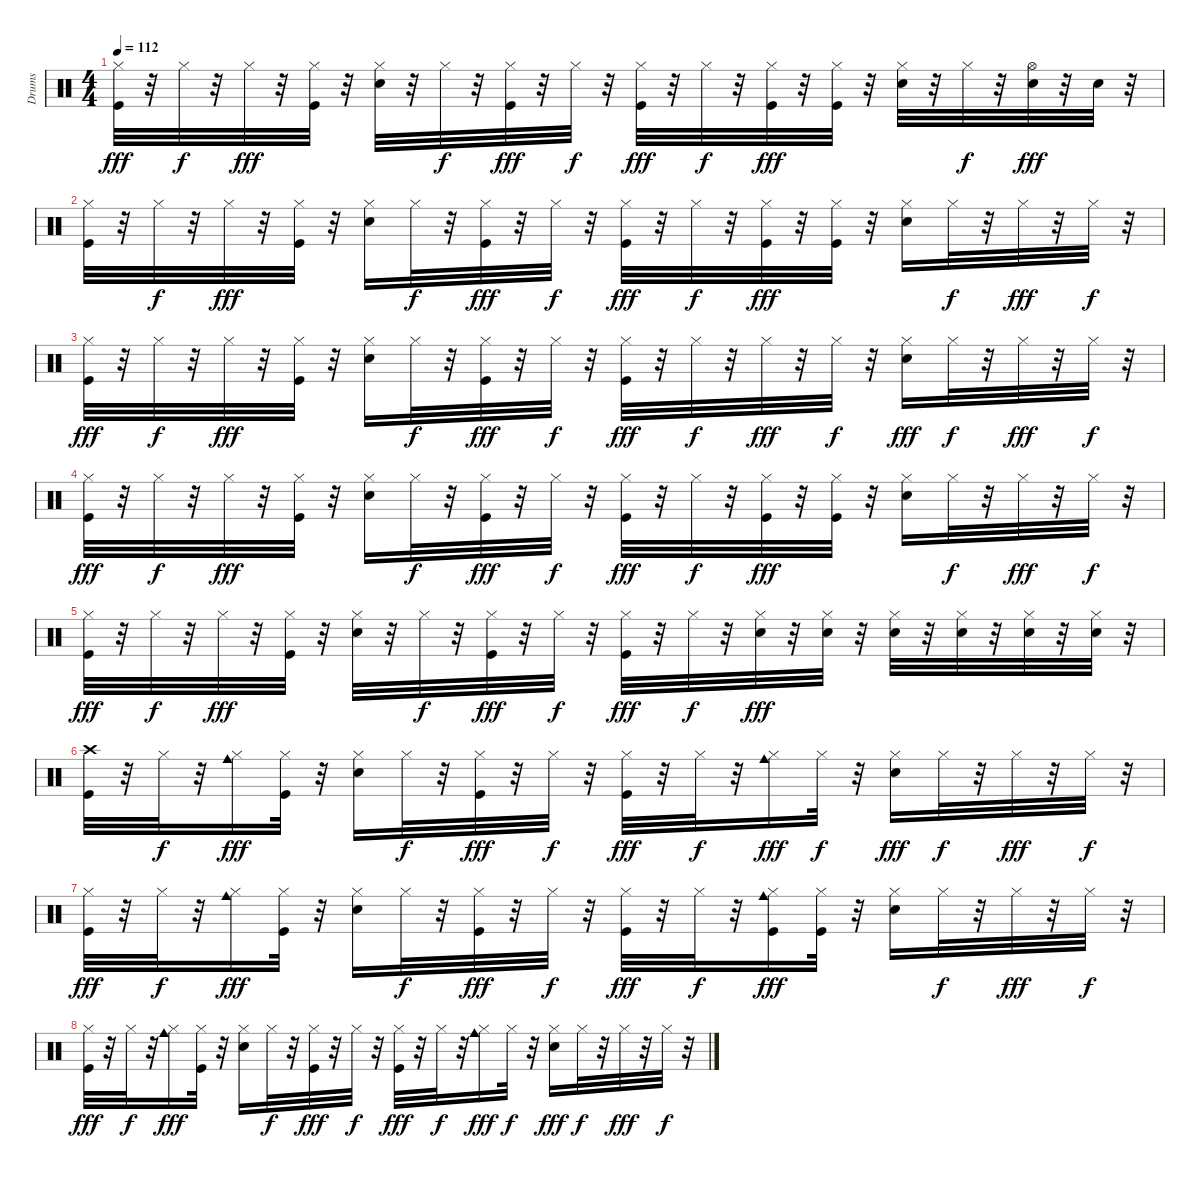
\track ("Drums" "Drums") {instrument percussion}
\staff {score}
\articulation defaults
\ts (4 4)
\tempo 112
\clef neutral
\ks c
("Kick (hit)" "Hi-Hat (closed)").32{dy fff} r.32 "Hi-Hat (closed)".32{dy f} r.32 "Hi-Hat (closed)".32{dy fff} r.32 ("Kick (hit)" "Hi-Hat (closed)").32 r.32 ("Snare (hit) 2" "Hi-Hat (closed)").32 r.32 "Hi-Hat (closed)".32{dy f} r.32 ("Kick (hit)" "Hi-Hat (closed)").32{dy fff} r.32 "Hi-Hat (closed)".32{dy f} r.32 ("Kick (hit)" "Hi-Hat (closed)").32{dy fff} r.32 "Hi-Hat (closed)".32{dy f} r.32 ("Kick (hit)" "Hi-Hat (closed)").32{dy fff} r.32 ("Kick (hit)" "Hi-Hat (closed)").32 r.32 ("Snare (hit) 2" "Hi-Hat (closed)").32 r.32 "Hi-Hat (closed)".32{dy f} r.32 ("Snare (hit) 2" "Hi-Hat (open)").32{dy fff} r.32 "Snare (hit) 2".32 r.32 |
("Kick (hit)" "Hi-Hat (closed)").32 r.32 "Hi-Hat (closed)".32{dy f} r.32 "Hi-Hat (closed)".32{dy fff} r.32 ("Kick (hit)" "Hi-Hat (closed)").32 r.32 ("Snare (hit) 2" "Hi-Hat (closed)").16 "Hi-Hat (closed)".32{dy f} r.32 ("Kick (hit)" "Hi-Hat (closed)").32{dy fff} r.32 "Hi-Hat (closed)".32{dy f} r.32 ("Kick (hit)" "Hi-Hat (closed)").32{dy fff} r.32 "Hi-Hat (closed)".32{dy f} r.32 ("Kick (hit)" "Hi-Hat (closed)").32{dy fff} r.32 ("Kick (hit)" "Hi-Hat (closed)").32 r.32 ("Snare (hit) 2" "Hi-Hat (closed)").16 "Hi-Hat (closed)".32{dy f} r.32 "Hi-Hat (closed)".32{dy fff} r.32 "Hi-Hat (closed)".32{dy f} r.32 |
("Kick (hit)" "Hi-Hat (closed)").32{dy fff} r.32 "Hi-Hat (closed)".32{dy f} r.32 "Hi-Hat (closed)".32{dy fff} r.32 ("Kick (hit)" "Hi-Hat (closed)").32 r.32 ("Snare (hit) 2" "Hi-Hat (closed)").16 "Hi-Hat (closed)".32{dy f} r.32 ("Kick (hit)" "Hi-Hat (closed)").32{dy fff} r.32 "Hi-Hat (closed)".32{dy f} r.32 ("Kick (hit)" "Hi-Hat (closed)").32{dy fff} r.32 "Hi-Hat (closed)".32{dy f} r.32 "Hi-Hat (closed)".32{dy fff} r.32 "Hi-Hat (closed)".32{dy f} r.32 ("Snare (hit) 2" "Hi-Hat (closed)").16{dy fff} "Hi-Hat (closed)".32{dy f} r.32 "Hi-Hat (closed)".32{dy fff} r.32 "Hi-Hat (closed)".32{dy f} r.32 |
("Kick (hit)" "Hi-Hat (closed)").32{dy fff} r.32 "Hi-Hat (closed)".32{dy f} r.32 "Hi-Hat (closed)".32{dy fff} r.32 ("Kick (hit)" "Hi-Hat (closed)").32 r.32 ("Snare (hit) 2" "Hi-Hat (closed)").16 "Hi-Hat (closed)".32{dy f} r.32 ("Kick (hit)" "Hi-Hat (closed)").32{dy fff} r.32 "Hi-Hat (closed)".32{dy f} r.32 ("Kick (hit)" "Hi-Hat (closed)").32{dy fff} r.32 "Hi-Hat (closed)".32{dy f} r.32 ("Kick (hit)" "Hi-Hat (closed)").32{dy fff} r.32 ("Kick (hit)" "Hi-Hat (closed)").32 r.32 ("Snare (hit) 2" "Hi-Hat (closed)").16 "Hi-Hat (closed)".32{dy f} r.32 "Hi-Hat (closed)".32{dy fff} r.32 "Hi-Hat (closed)".32{dy f} r.32 |
("Kick (hit)" "Hi-Hat (closed)").32{dy fff} r.32 "Hi-Hat (closed)".32{dy f} r.32 "Hi-Hat (closed)".32{dy fff} r.32 ("Kick (hit)" "Hi-Hat (closed)").32 r.32 ("Snare (hit) 2" "Hi-Hat (closed)").32 r.32 "Hi-Hat (closed)".32{dy f} r.32 ("Kick (hit)" "Hi-Hat (closed)").32{dy fff} r.32 "Hi-Hat (closed)".32{dy f} r.32 ("Kick (hit)" "Hi-Hat (closed)").32{dy fff} r.32 "Hi-Hat (closed)".32{dy f} r.32 ("Snare (hit) 2" "Hi-Hat (closed)").32{dy fff} r.32 ("Snare (hit) 2" "Hi-Hat (closed)").32 r.32 ("Snare (hit) 2" "Hi-Hat (closed)").32 r.32 ("Snare (hit) 2" "Hi-Hat (closed)").32 r.32 ("Snare (hit) 2" "Hi-Hat (closed)").32 r.32 ("Snare (hit) 2" "Hi-Hat (closed)").32 r.32 |
("Kick (hit)" "Crash high (hit)").32 r.32 "Hi-Hat (closed)".32{dy f} r.32 ("Hi-Hat (closed)" "Cowbell medium (hit)").16{dy fff} ("Kick (hit)" "Hi-Hat (closed)").32 r.32 ("Snare (hit) 2" "Hi-Hat (closed)").16 "Hi-Hat (closed)".32{dy f} r.32 ("Kick (hit)" "Hi-Hat (closed)").32{dy fff} r.32 "Hi-Hat (closed)".32{dy f} r.32 ("Kick (hit)" "Hi-Hat (closed)").32{dy fff} r.32 "Hi-Hat (closed)".32{dy f} r.32 ("Hi-Hat (closed)" "Cowbell medium (hit)").16{dy fff} "Hi-Hat (closed)".32{dy f} r.32 ("Snare (hit) 2" "Hi-Hat (closed)").16{dy fff} "Hi-Hat (closed)".32{dy f} r.32 "Hi-Hat (closed)".32{dy fff} r.32 "Hi-Hat (closed)".32{dy f} r.32 |
("Kick (hit)" "Hi-Hat (closed)").32{dy fff} r.32 "Hi-Hat (closed)".32{dy f} r.32 ("Hi-Hat (closed)" "Cowbell medium (hit)").16{dy fff} ("Kick (hit)" "Hi-Hat (closed)").32 r.32 ("Snare (hit) 2" "Hi-Hat (closed)").16 "Hi-Hat (closed)".32{dy f} r.32 ("Kick (hit)" "Hi-Hat (closed)").32{dy fff} r.32 "Hi-Hat (closed)".32{dy f} r.32 ("Kick (hit)" "Hi-Hat (closed)").32{dy fff} r.32 "Hi-Hat (closed)".32{dy f} r.32 ("Kick (hit)" "Hi-Hat (closed)" "Cowbell medium (hit)").16{dy fff} ("Kick (hit)" "Hi-Hat (closed)").32 r.32 ("Snare (hit) 2" "Hi-Hat (closed)").16 "Hi-Hat (closed)".32{dy f} r.32 "Hi-Hat (closed)".32{dy fff} r.32 "Hi-Hat (closed)".32{dy f} r.32 |
("Kick (hit)" "Hi-Hat (closed)").32{dy fff} r.32 "Hi-Hat (closed)".32{dy f} r.32 ("Hi-Hat (closed)" "Cowbell medium (hit)").16{dy fff} ("Kick (hit)" "Hi-Hat (closed)").32 r.32 ("Snare (hit) 2" "Hi-Hat (closed)").16 "Hi-Hat (closed)".32{dy f} r.32 ("Kick (hit)" "Hi-Hat (closed)").32{dy fff} r.32 "Hi-Hat (closed)".32{dy f} r.32 ("Kick (hit)" "Hi-Hat (closed)").32{dy fff} r.32 "Hi-Hat (closed)".32{dy f} r.32 ("Hi-Hat (closed)" "Cowbell medium (hit)").16{dy fff} "Hi-Hat (closed)".32{dy f} r.32 ("Snare (hit) 2" "Hi-Hat (closed)").16{dy fff} "Hi-Hat (closed)".32{dy f} r.32 "Hi-Hat (closed)".32{dy fff} r.32 "Hi-Hat (closed)".32{dy f} r.32
